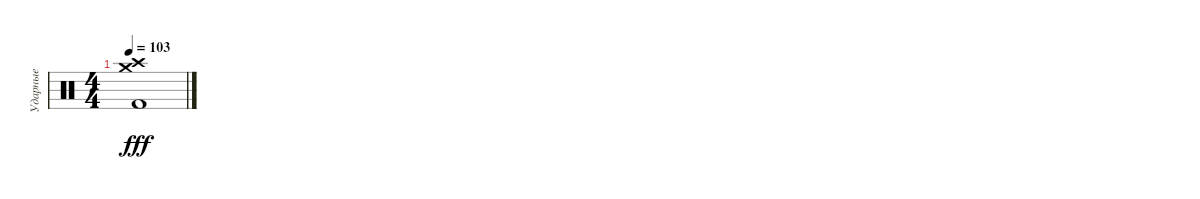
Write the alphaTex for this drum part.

\track ("Ударные" "Ударные") {instrument percussion}
\staff {score}
\articulation defaults
\ts (4 4)
\tempo 103
\clef neutral
\ks c
("Crash high (hit)" "Crash medium (hit)" "Kick (hit) 2").1{dy fff}
